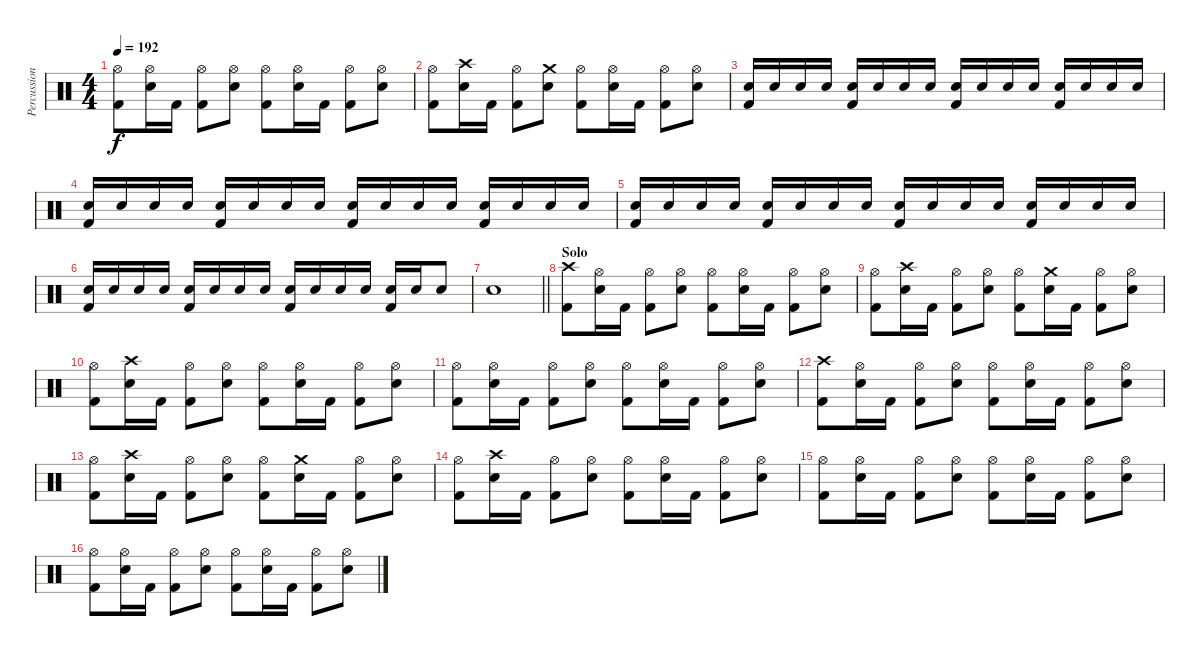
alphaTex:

\track ("Percussion" "Percussion") {instrument percussion}
\staff {score}
\articulation defaults
\ts (4 4)
\tempo 192
\clef neutral
\ks c
("Hi-Hat (open)" "Kick (hit) 2").8{dy f} ("Hi-Hat (open)" "Electric Snare (hit)").16 "Kick (hit) 2".16 ("Hi-Hat (open)" "Kick (hit) 2").8 ("Hi-Hat (open)" "Electric Snare (hit)").8 ("Hi-Hat (open)" "Kick (hit) 2").8 ("Hi-Hat (open)" "Electric Snare (hit)").16 "Kick (hit) 2".16 ("Hi-Hat (open)" "Kick (hit) 2").8 ("Hi-Hat (open)" "Electric Snare (hit)").8 |
("Hi-Hat (open)" "Kick (hit) 2").8 ("Crash high (hit)" "Electric Snare (hit)").16 "Kick (hit) 2".16 ("Hi-Hat (open)" "Kick (hit) 2").8 ("Crash medium (hit)" "Electric Snare (hit)").8 ("Hi-Hat (open)" "Kick (hit) 2").8 ("Hi-Hat (open)" "Electric Snare (hit)").16 "Kick (hit) 2".16 ("Hi-Hat (open)" "Kick (hit) 2").8 ("Hi-Hat (open)" "Electric Snare (hit)").8 |
("Electric Snare (hit)" "Kick (hit) 2").16 "Electric Snare (hit)".16 "Electric Snare (hit)".16 "Electric Snare (hit)".16 ("Electric Snare (hit)" "Kick (hit) 2").16 "Electric Snare (hit)".16 "Electric Snare (hit)".16 "Electric Snare (hit)".16 ("Electric Snare (hit)" "Kick (hit) 2").16 "Electric Snare (hit)".16 "Electric Snare (hit)".16 "Electric Snare (hit)".16 ("Electric Snare (hit)" "Kick (hit) 2").16 "Electric Snare (hit)".16 "Electric Snare (hit)".16 "Electric Snare (hit)".16 |
("Electric Snare (hit)" "Kick (hit) 2").16 "Electric Snare (hit)".16 "Electric Snare (hit)".16 "Electric Snare (hit)".16 ("Electric Snare (hit)" "Kick (hit) 2").16 "Electric Snare (hit)".16 "Electric Snare (hit)".16 "Electric Snare (hit)".16 ("Electric Snare (hit)" "Kick (hit) 2").16 "Electric Snare (hit)".16 "Electric Snare (hit)".16 "Electric Snare (hit)".16 ("Electric Snare (hit)" "Kick (hit) 2").16 "Electric Snare (hit)".16 "Electric Snare (hit)".16 "Electric Snare (hit)".16 |
("Electric Snare (hit)" "Kick (hit) 2").16 "Electric Snare (hit)".16 "Electric Snare (hit)".16 "Electric Snare (hit)".16 ("Electric Snare (hit)" "Kick (hit) 2").16 "Electric Snare (hit)".16 "Electric Snare (hit)".16 "Electric Snare (hit)".16 ("Electric Snare (hit)" "Kick (hit) 2").16 "Electric Snare (hit)".16 "Electric Snare (hit)".16 "Electric Snare (hit)".16 ("Electric Snare (hit)" "Kick (hit) 2").16 "Electric Snare (hit)".16 "Electric Snare (hit)".16 "Electric Snare (hit)".16 |
("Electric Snare (hit)" "Kick (hit) 2").16 "Electric Snare (hit)".16 "Electric Snare (hit)".16 "Electric Snare (hit)".16 ("Electric Snare (hit)" "Kick (hit) 2").16 "Electric Snare (hit)".16 "Electric Snare (hit)".16 "Electric Snare (hit)".16 ("Electric Snare (hit)" "Kick (hit) 2").16 "Electric Snare (hit)".16 "Electric Snare (hit)".16 "Electric Snare (hit)".16 ("Electric Snare (hit)" "Kick (hit) 2").16 "Electric Snare (hit)".16 "Electric Snare (hit)".8 |
\barLineRight lightlight "Electric Snare (hit)".1
|
\section ("" "Solo")
("Crash high (hit)" "Kick (hit) 2").8 ("Hi-Hat (open)" "Electric Snare (hit)").16 "Kick (hit) 2".16 ("Hi-Hat (open)" "Kick (hit) 2").8 ("Hi-Hat (open)" "Electric Snare (hit)").8 ("Hi-Hat (open)" "Kick (hit) 2").8 ("Hi-Hat (open)" "Electric Snare (hit)").16 "Kick (hit) 2".16 ("Hi-Hat (open)" "Kick (hit) 2").8 ("Hi-Hat (open)" "Electric Snare (hit)").8 |
("Hi-Hat (open)" "Kick (hit) 2").8 ("Crash high (hit)" "Electric Snare (hit)").16 "Kick (hit) 2".16 ("Hi-Hat (open)" "Kick (hit) 2").8 ("Hi-Hat (open)" "Electric Snare (hit)").8 ("Hi-Hat (open)" "Kick (hit) 2").8 ("Crash medium (hit)" "Electric Snare (hit)").16 "Kick (hit) 2".16 ("Hi-Hat (open)" "Kick (hit) 2").8 ("Hi-Hat (open)" "Electric Snare (hit)").8 |
("Hi-Hat (open)" "Kick (hit) 2").8 ("Crash high (hit)" "Electric Snare (hit)").16 "Kick (hit) 2".16 ("Hi-Hat (open)" "Kick (hit) 2").8 ("Hi-Hat (open)" "Electric Snare (hit)").8 ("Hi-Hat (open)" "Kick (hit) 2").8 ("Hi-Hat (open)" "Electric Snare (hit)").16 "Kick (hit) 2".16 ("Hi-Hat (open)" "Kick (hit) 2").8 ("Hi-Hat (open)" "Electric Snare (hit)").8 |
("Hi-Hat (open)" "Kick (hit) 2").8 ("Hi-Hat (open)" "Electric Snare (hit)").16 "Kick (hit) 2".16 ("Hi-Hat (open)" "Kick (hit) 2").8 ("Hi-Hat (open)" "Electric Snare (hit)").8 ("Hi-Hat (open)" "Kick (hit) 2").8 ("Hi-Hat (open)" "Electric Snare (hit)").16 "Kick (hit) 2".16 ("Hi-Hat (open)" "Kick (hit) 2").8 ("Hi-Hat (open)" "Electric Snare (hit)").8 |
("Crash high (hit)" "Kick (hit) 2").8 ("Hi-Hat (open)" "Electric Snare (hit)").16 "Kick (hit) 2".16 ("Hi-Hat (open)" "Kick (hit) 2").8 ("Hi-Hat (open)" "Electric Snare (hit)").8 ("Hi-Hat (open)" "Kick (hit) 2").8 ("Hi-Hat (open)" "Electric Snare (hit)").16 "Kick (hit) 2".16 ("Hi-Hat (open)" "Kick (hit) 2").8 ("Hi-Hat (open)" "Electric Snare (hit)").8 |
("Hi-Hat (open)" "Kick (hit) 2").8 ("Crash high (hit)" "Electric Snare (hit)").16 "Kick (hit) 2".16 ("Hi-Hat (open)" "Kick (hit) 2").8 ("Hi-Hat (open)" "Electric Snare (hit)").8 ("Hi-Hat (open)" "Kick (hit) 2").8 ("Crash medium (hit)" "Electric Snare (hit)").16 "Kick (hit) 2".16 ("Hi-Hat (open)" "Kick (hit) 2").8 ("Hi-Hat (open)" "Electric Snare (hit)").8 |
("Hi-Hat (open)" "Kick (hit) 2").8 ("Crash high (hit)" "Electric Snare (hit)").16 "Kick (hit) 2".16 ("Hi-Hat (open)" "Kick (hit) 2").8 ("Hi-Hat (open)" "Electric Snare (hit)").8 ("Hi-Hat (open)" "Kick (hit) 2").8 ("Hi-Hat (open)" "Electric Snare (hit)").16 "Kick (hit) 2".16 ("Hi-Hat (open)" "Kick (hit) 2").8 ("Hi-Hat (open)" "Electric Snare (hit)").8 |
("Hi-Hat (open)" "Kick (hit) 2").8 ("Hi-Hat (open)" "Electric Snare (hit)").16 "Kick (hit) 2".16 ("Hi-Hat (open)" "Kick (hit) 2").8 ("Hi-Hat (open)" "Electric Snare (hit)").8 ("Hi-Hat (open)" "Kick (hit) 2").8 ("Hi-Hat (open)" "Electric Snare (hit)").16 "Kick (hit) 2".16 ("Hi-Hat (open)" "Kick (hit) 2").8 ("Hi-Hat (open)" "Electric Snare (hit)").8 |
("Hi-Hat (open)" "Kick (hit) 2").8 ("Hi-Hat (open)" "Electric Snare (hit)").16 "Kick (hit) 2".16 ("Hi-Hat (open)" "Kick (hit) 2").8 ("Hi-Hat (open)" "Electric Snare (hit)").8 ("Hi-Hat (open)" "Kick (hit) 2").8 ("Hi-Hat (open)" "Electric Snare (hit)").16 "Kick (hit) 2".16 ("Hi-Hat (open)" "Kick (hit) 2").8 ("Hi-Hat (open)" "Electric Snare (hit)").8
